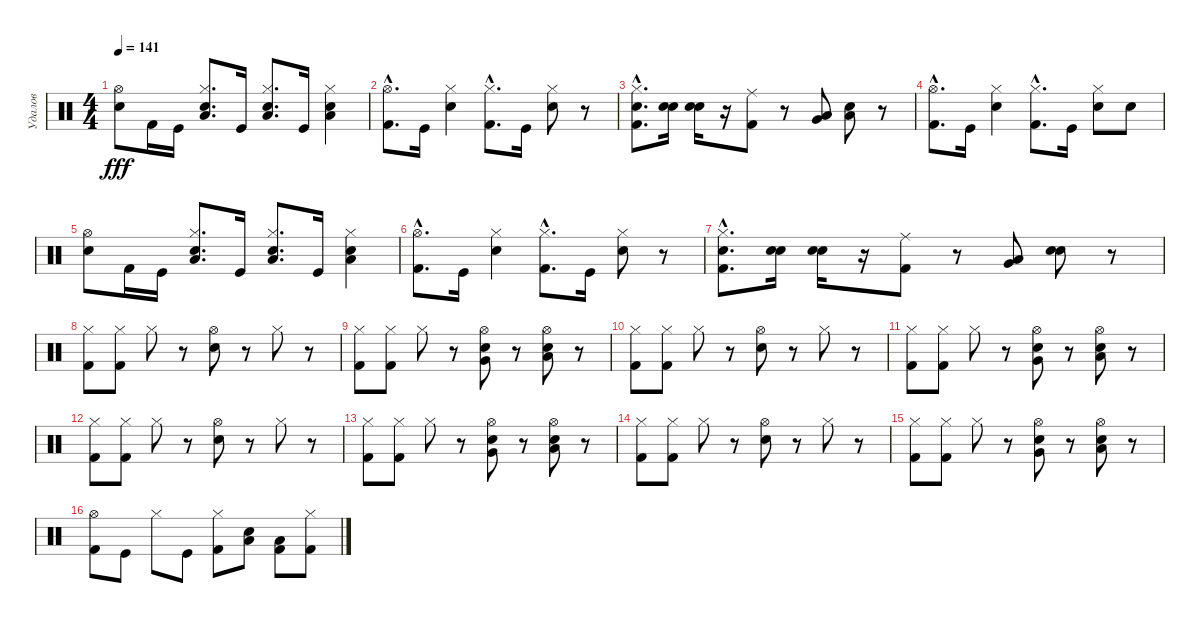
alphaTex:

\track ("Удалов" "Удалов") {instrument percussion}
\staff {score}
\articulation defaults
\ts (4 4)
\tempo 141
\clef neutral
\ks c
("Hi-Hat (open)" "Snare (hit) 2").8{dy fff} "Kick (hit) 2".16 "Kick (hit)".16 ("Hi-Hat (closed)" "Low Tom (hit)" "Snare (hit) 2").8{d} "Kick (hit)".16 ("Hi-Hat (closed)" "Low Tom (hit)" "Snare (hit) 2").8{d} "Kick (hit)".16 ("Hi-Hat (closed)" "Low Tom (hit)" "Snare (hit) 2").4 |
("Hi-Hat (open)"{hac} "Kick (hit) 2"{hac}).8{d} "Kick (hit)".16 ("Hi-Hat (closed)" "Snare (hit) 2").4 ("Hi-Hat (closed)"{hac} "Kick (hit) 2"{hac}).8{d} "Kick (hit)".16 ("Hi-Hat (closed)" "Snare (hit) 2").8 r.8 |
("Hi-Hat (closed)" "Snare (hit) 2"{hac} "Kick (hit) 2").8{d} ("Electric Snare (hit)" "Snare (hit) 2").16 ("Snare (hit) 2" "Electric Snare (hit)").16 r.16 ("Ride (middle)" "Kick (hit) 2").8 r.8 ("Very Low Tom (hit)" "Low Tom (hit)").8 ("Low Tom (hit)" "Snare (hit) 2").8 r.8 |
("Hi-Hat (open)"{hac} "Kick (hit) 2"{hac}).8{d} "Kick (hit)".16 ("Hi-Hat (closed)" "Snare (hit) 2").4 ("Hi-Hat (closed)"{hac} "Kick (hit) 2"{hac}).8{d} "Kick (hit)".16 ("Hi-Hat (closed)" "Snare (hit) 2").8 "Snare (hit) 2".8 |
("Hi-Hat (open)" "Snare (hit) 2").8 "Kick (hit) 2".16 "Kick (hit)".16 ("Hi-Hat (closed)" "Low Tom (hit)" "Snare (hit) 2").8{d} "Kick (hit)".16 ("Hi-Hat (closed)" "Low Tom (hit)" "Snare (hit) 2").8{d} "Kick (hit)".16 ("Hi-Hat (closed)" "Low Tom (hit)" "Snare (hit) 2").4 |
("Hi-Hat (open)"{hac} "Kick (hit) 2"{hac}).8{d} "Kick (hit)".16 ("Hi-Hat (closed)" "Snare (hit) 2").4 ("Hi-Hat (closed)"{hac} "Kick (hit) 2"{hac}).8{d} "Kick (hit)".16 ("Hi-Hat (closed)" "Snare (hit) 2").8 r.8 |
("Hi-Hat (closed)" "Snare (hit) 2"{hac} "Kick (hit) 2").8{d} ("Electric Snare (hit)" "Snare (hit) 2").16 ("Snare (hit) 2" "Electric Snare (hit)").16 r.16 ("Ride (middle)" "Kick (hit) 2").8 r.8 ("Very Low Tom (hit)" "Low Tom (hit)").8 ("Electric Snare (hit)" "Snare (hit) 2").8 r.8 |
("Hi-Hat (closed)" "Kick (hit) 2").8 ("Hi-Hat (closed)" "Kick (hit) 2").8 "Hi-Hat (closed)".8 r.8 ("Hi-Hat (open)" "Snare (hit) 2").8 r.8 "Hi-Hat (closed)".8 r.8 |
("Hi-Hat (closed)" "Kick (hit) 2").8 ("Hi-Hat (closed)" "Kick (hit) 2").8 "Hi-Hat (closed)".8 r.8 ("Very Low Tom (hit)" "Hi-Hat (open)" "Snare (hit) 2").8 r.8 ("Low Tom (hit)" "Snare (hit) 2" "Hi-Hat (open)").8 r.8 |
("Hi-Hat (closed)" "Kick (hit) 2").8 ("Hi-Hat (closed)" "Kick (hit) 2").8 "Hi-Hat (closed)".8 r.8 ("Hi-Hat (open)" "Snare (hit) 2").8 r.8 "Hi-Hat (closed)".8 r.8 |
("Hi-Hat (closed)" "Kick (hit) 2").8 ("Hi-Hat (closed)" "Kick (hit) 2").8 "Hi-Hat (closed)".8 r.8 ("Very Low Tom (hit)" "Hi-Hat (open)" "Snare (hit) 2").8 r.8 ("Low Tom (hit)" "Snare (hit) 2" "Hi-Hat (open)").8 r.8 |
("Hi-Hat (closed)" "Kick (hit) 2").8 ("Hi-Hat (closed)" "Kick (hit) 2").8 "Hi-Hat (closed)".8 r.8 ("Hi-Hat (open)" "Snare (hit) 2").8 r.8 "Hi-Hat (closed)".8 r.8 |
("Hi-Hat (closed)" "Kick (hit) 2").8 ("Hi-Hat (closed)" "Kick (hit) 2").8 "Hi-Hat (closed)".8 r.8 ("Very Low Tom (hit)" "Hi-Hat (open)" "Snare (hit) 2").8 r.8 ("Low Tom (hit)" "Snare (hit) 2" "Hi-Hat (open)").8 r.8 |
("Hi-Hat (closed)" "Kick (hit) 2").8 ("Hi-Hat (closed)" "Kick (hit) 2").8 "Hi-Hat (closed)".8 r.8 ("Hi-Hat (open)" "Snare (hit) 2").8 r.8 "Hi-Hat (closed)".8 r.8 |
("Hi-Hat (closed)" "Kick (hit) 2").8 ("Hi-Hat (closed)" "Kick (hit) 2").8 "Hi-Hat (closed)".8 r.8 ("Very Low Tom (hit)" "Hi-Hat (open)" "Snare (hit) 2").8 r.8 ("Low Tom (hit)" "Snare (hit) 2" "Hi-Hat (open)").8 r.8 |
("Hi-Hat (open)" "Kick (hit) 2").8 "Kick (hit)".8 "Hi-Hat (closed)".8 "Kick (hit)".8 ("Kick (hit) 2" "Hi-Hat (closed)").8 ("Snare (hit) 2" "Low Tom (hit)").8 ("Low Floor Tom (hit)" "Kick (hit) 2").8 ("Kick (hit) 2" "Hi-Hat (closed)").8
